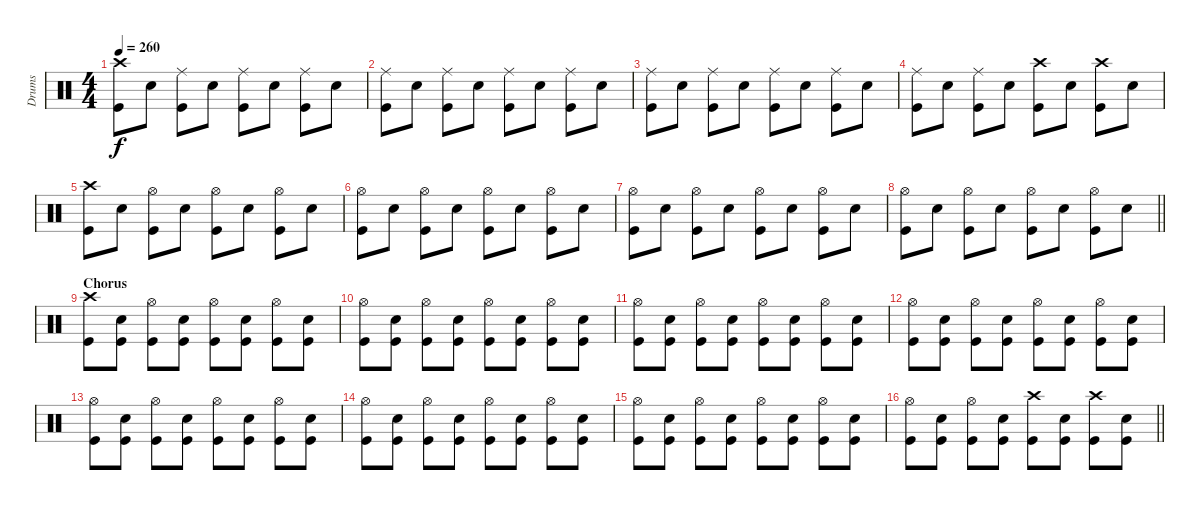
\track ("Drums" "Drums") {instrument percussion}
\staff {score}
\articulation defaults
\ts (4 4)
\tempo 260
\clef neutral
\ks c
("Kick (hit)" "Crash high (hit)").8{dy f} "Snare (hit) 2".8 ("Kick (hit)" "Ride (middle)").8 "Snare (hit) 2".8 ("Kick (hit)" "Ride (middle)").8 "Snare (hit) 2".8 ("Kick (hit)" "Ride (middle)").8 "Snare (hit) 2".8 |
("Kick (hit)" "Ride (middle)").8 "Snare (hit) 2".8 ("Kick (hit)" "Ride (middle)").8 "Snare (hit) 2".8 ("Kick (hit)" "Ride (middle)").8 "Snare (hit) 2".8 ("Kick (hit)" "Ride (middle)").8 "Snare (hit) 2".8 |
("Kick (hit)" "Ride (middle)").8 "Snare (hit) 2".8 ("Kick (hit)" "Ride (middle)").8 "Snare (hit) 2".8 ("Kick (hit)" "Ride (middle)").8 "Snare (hit) 2".8 ("Kick (hit)" "Ride (middle)").8 "Snare (hit) 2".8 |
("Kick (hit)" "Ride (middle)").8 "Snare (hit) 2".8 ("Kick (hit)" "Ride (middle)").8 "Snare (hit) 2".8 ("Kick (hit)" "Crash high (hit)").8 "Snare (hit) 2".8 ("Kick (hit)" "Crash high (hit)").8 "Snare (hit) 2".8 |
("Kick (hit)" "Crash high (hit)").8 "Snare (hit) 2".8 ("Kick (hit)" "Hi-Hat (open)").8 "Snare (hit) 2".8 ("Kick (hit)" "Hi-Hat (open)").8 "Snare (hit) 2".8 ("Kick (hit)" "Hi-Hat (open)").8 "Snare (hit) 2".8 |
("Kick (hit)" "Hi-Hat (open)").8 "Snare (hit) 2".8 ("Kick (hit)" "Hi-Hat (open)").8 "Snare (hit) 2".8 ("Kick (hit)" "Hi-Hat (open)").8 "Snare (hit) 2".8 ("Kick (hit)" "Hi-Hat (open)").8 "Snare (hit) 2".8 |
("Kick (hit)" "Hi-Hat (open)").8 "Snare (hit) 2".8 ("Kick (hit)" "Hi-Hat (open)").8 "Snare (hit) 2".8 ("Kick (hit)" "Hi-Hat (open)").8 "Snare (hit) 2".8 ("Kick (hit)" "Hi-Hat (open)").8 "Snare (hit) 2".8 |
\barLineRight lightlight
("Kick (hit)" "Hi-Hat (open)").8 "Snare (hit) 2".8 ("Kick (hit)" "Hi-Hat (open)").8 "Snare (hit) 2".8 ("Kick (hit)" "Hi-Hat (open)").8 "Snare (hit) 2".8 ("Kick (hit)" "Hi-Hat (open)").8 "Snare (hit) 2".8 |
\section ("" "Chorus")
("Kick (hit)" "Crash high (hit)").8 ("Snare (hit) 2" "Kick (hit)").8 ("Kick (hit)" "Hi-Hat (open)").8 ("Snare (hit) 2" "Kick (hit)").8 ("Kick (hit)" "Hi-Hat (open)").8 ("Snare (hit) 2" "Kick (hit)").8 ("Hi-Hat (open)" "Kick (hit)").8 ("Snare (hit) 2" "Kick (hit)").8 |
("Kick (hit)" "Hi-Hat (open)").8 ("Snare (hit) 2" "Kick (hit)").8 ("Kick (hit)" "Hi-Hat (open)").8 ("Snare (hit) 2" "Kick (hit)").8 ("Kick (hit)" "Hi-Hat (open)").8 ("Snare (hit) 2" "Kick (hit)").8 ("Hi-Hat (open)" "Kick (hit)").8 ("Snare (hit) 2" "Kick (hit)").8 |
("Kick (hit)" "Hi-Hat (open)").8 ("Snare (hit) 2" "Kick (hit)").8 ("Kick (hit)" "Hi-Hat (open)").8 ("Snare (hit) 2" "Kick (hit)").8 ("Kick (hit)" "Hi-Hat (open)").8 ("Snare (hit) 2" "Kick (hit)").8 ("Hi-Hat (open)" "Kick (hit)").8 ("Snare (hit) 2" "Kick (hit)").8 |
("Kick (hit)" "Hi-Hat (open)").8 ("Snare (hit) 2" "Kick (hit)").8 ("Kick (hit)" "Hi-Hat (open)").8 ("Snare (hit) 2" "Kick (hit)").8 ("Kick (hit)" "Hi-Hat (open)").8 ("Snare (hit) 2" "Kick (hit)").8 ("Hi-Hat (open)" "Kick (hit)").8 ("Snare (hit) 2" "Kick (hit)").8 |
("Kick (hit)" "Hi-Hat (open)").8 ("Snare (hit) 2" "Kick (hit)").8 ("Kick (hit)" "Hi-Hat (open)").8 ("Snare (hit) 2" "Kick (hit)").8 ("Kick (hit)" "Hi-Hat (open)").8 ("Snare (hit) 2" "Kick (hit)").8 ("Hi-Hat (open)" "Kick (hit)").8 ("Snare (hit) 2" "Kick (hit)").8 |
("Kick (hit)" "Hi-Hat (open)").8 ("Snare (hit) 2" "Kick (hit)").8 ("Kick (hit)" "Hi-Hat (open)").8 ("Snare (hit) 2" "Kick (hit)").8 ("Kick (hit)" "Hi-Hat (open)").8 ("Snare (hit) 2" "Kick (hit)").8 ("Hi-Hat (open)" "Kick (hit)").8 ("Snare (hit) 2" "Kick (hit)").8 |
("Kick (hit)" "Hi-Hat (open)").8 ("Snare (hit) 2" "Kick (hit)").8 ("Kick (hit)" "Hi-Hat (open)").8 ("Snare (hit) 2" "Kick (hit)").8 ("Kick (hit)" "Hi-Hat (open)").8 ("Snare (hit) 2" "Kick (hit)").8 ("Hi-Hat (open)" "Kick (hit)").8 ("Snare (hit) 2" "Kick (hit)").8 |
\barLineRight lightlight
("Kick (hit)" "Hi-Hat (open)").8 ("Snare (hit) 2" "Kick (hit)").8 ("Hi-Hat (open)" "Kick (hit)").8 ("Snare (hit) 2" "Kick (hit)").8 ("Kick (hit)" "Crash high (hit)").8 ("Snare (hit) 2" "Kick (hit)").8 ("Kick (hit)" "Crash high (hit)").8 ("Snare (hit) 2" "Kick (hit)").8
